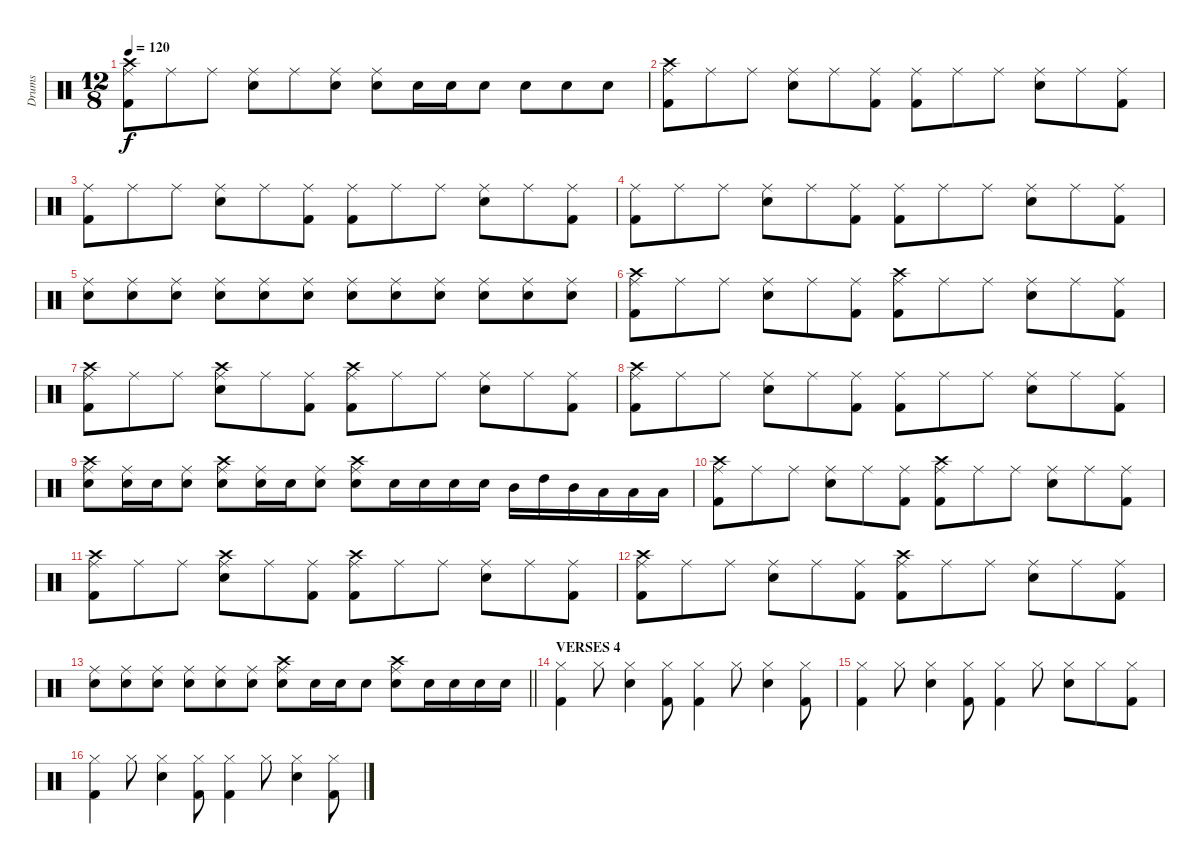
\track ("Drums" "Drums") {instrument percussion}
\staff {score}
\articulation defaults
\ts (12 8)
\tempo 120
\clef neutral
\ks c
("Crash high (hit)" "Ride (middle)" "Kick (hit) 2").8{dy f} "Ride (middle)".8 "Ride (middle)".8 ("Ride (middle)" "Electric Snare (hit)").8 "Ride (middle)".8 ("Ride (middle)" "Electric Snare (hit)").8 ("Ride (middle)" "Electric Snare (hit)").8 "Electric Snare (hit)".16 "Electric Snare (hit)".16 "Electric Snare (hit)".8 "Electric Snare (hit)".8 "Electric Snare (hit)".8 "Electric Snare (hit)".8 |
("Crash high (hit)" "Ride (middle)" "Kick (hit) 2").8 "Ride (middle)".8 "Ride (middle)".8 ("Ride (middle)" "Electric Snare (hit)").8 "Ride (middle)".8 ("Ride (middle)" "Kick (hit) 2").8 ("Ride (middle)" "Kick (hit) 2").8 "Ride (middle)".8 "Ride (middle)".8 ("Ride (middle)" "Electric Snare (hit)").8 "Ride (middle)".8 ("Ride (middle)" "Kick (hit) 2").8 |
("Ride (middle)" "Kick (hit) 2").8 "Ride (middle)".8 "Ride (middle)".8 ("Ride (middle)" "Electric Snare (hit)").8 "Ride (middle)".8 ("Ride (middle)" "Kick (hit) 2").8 ("Ride (middle)" "Kick (hit) 2").8 "Ride (middle)".8 "Ride (middle)".8 ("Ride (middle)" "Electric Snare (hit)").8 "Ride (middle)".8 ("Ride (middle)" "Kick (hit) 2").8 |
("Ride (middle)" "Kick (hit) 2").8 "Ride (middle)".8 "Ride (middle)".8 ("Ride (middle)" "Electric Snare (hit)").8 "Ride (middle)".8 ("Ride (middle)" "Kick (hit) 2").8 ("Ride (middle)" "Kick (hit) 2").8 "Ride (middle)".8 "Ride (middle)".8 ("Ride (middle)" "Electric Snare (hit)").8 "Ride (middle)".8 ("Ride (middle)" "Kick (hit) 2").8 |
("Ride (middle)" "Electric Snare (hit)").8 ("Ride (middle)" "Electric Snare (hit)").8 ("Ride (middle)" "Electric Snare (hit)").8 ("Ride (middle)" "Electric Snare (hit)").8 ("Ride (middle)" "Electric Snare (hit)").8 ("Ride (middle)" "Electric Snare (hit)").8 ("Ride (middle)" "Electric Snare (hit)").8 ("Ride (middle)" "Electric Snare (hit)").8 ("Ride (middle)" "Electric Snare (hit)").8 ("Ride (middle)" "Electric Snare (hit)").8 ("Ride (middle)" "Electric Snare (hit)").8 ("Ride (middle)" "Electric Snare (hit)").8 |
("Crash high (hit)" "Ride (middle)" "Kick (hit) 2").8 "Ride (middle)".8 "Ride (middle)".8 ("Ride (middle)" "Electric Snare (hit)").8 "Ride (middle)".8 ("Ride (middle)" "Kick (hit) 2").8 ("Crash high (hit)" "Ride (middle)" "Kick (hit) 2").8 "Ride (middle)".8 "Ride (middle)".8 ("Ride (middle)" "Electric Snare (hit)").8 "Ride (middle)".8 ("Ride (middle)" "Kick (hit) 2").8 |
("Crash high (hit)" "Ride (middle)" "Kick (hit) 2").8 "Ride (middle)".8 "Ride (middle)".8 ("Crash high (hit)" "Ride (middle)" "Electric Snare (hit)").8 "Ride (middle)".8 ("Ride (middle)" "Kick (hit) 2").8 ("Crash high (hit)" "Ride (middle)" "Kick (hit) 2").8 "Ride (middle)".8 "Ride (middle)".8 ("Ride (middle)" "Electric Snare (hit)").8 "Ride (middle)".8 ("Ride (middle)" "Kick (hit) 2").8 |
("Crash high (hit)" "Ride (middle)" "Kick (hit) 2").8 "Ride (middle)".8 "Ride (middle)".8 ("Ride (middle)" "Electric Snare (hit)").8 "Ride (middle)".8 ("Ride (middle)" "Kick (hit) 2").8 ("Ride (middle)" "Kick (hit) 2").8 "Ride (middle)".8 "Ride (middle)".8 ("Ride (middle)" "Electric Snare (hit)").8 "Ride (middle)".8 ("Ride (middle)" "Kick (hit) 2").8 |
("Crash high (hit)" "Ride (middle)" "Electric Snare (hit)").8 ("Ride (middle)" "Electric Snare (hit)").16 "Electric Snare (hit)".16 ("Ride (middle)" "Electric Snare (hit)").8 ("Crash high (hit)" "Ride (middle)" "Electric Snare (hit)").8 ("Ride (middle)" "Electric Snare (hit)").16 "Electric Snare (hit)".16 ("Ride (middle)" "Electric Snare (hit)").8 ("Crash high (hit)" "Ride (middle)" "Electric Snare (hit)").8 "Electric Snare (hit)".16 "Electric Snare (hit)".16 "Electric Snare (hit)".16 "Electric Snare (hit)".16 "Mid Tom (hit)".16 "High Tom (hit)".16 "Mid Tom (hit)".16 "Low Tom (hit)".16 "Low Tom (hit)".16 "Low Tom (hit)".16 |
("Crash high (hit)" "Ride (middle)" "Kick (hit) 2").8 "Ride (middle)".8 "Ride (middle)".8 ("Ride (middle)" "Electric Snare (hit)").8 "Ride (middle)".8 ("Ride (middle)" "Kick (hit) 2").8 ("Crash high (hit)" "Ride (middle)" "Kick (hit) 2").8 "Ride (middle)".8 "Ride (middle)".8 ("Ride (middle)" "Electric Snare (hit)").8 "Ride (middle)".8 ("Ride (middle)" "Kick (hit) 2").8 |
("Crash high (hit)" "Ride (middle)" "Kick (hit) 2").8 "Ride (middle)".8 "Ride (middle)".8 ("Crash high (hit)" "Ride (middle)" "Electric Snare (hit)").8 "Ride (middle)".8 ("Ride (middle)" "Kick (hit) 2").8 ("Crash high (hit)" "Ride (middle)" "Kick (hit) 2").8 "Ride (middle)".8 "Ride (middle)".8 ("Ride (middle)" "Electric Snare (hit)").8 "Ride (middle)".8 ("Ride (middle)" "Kick (hit) 2").8 |
("Crash high (hit)" "Ride (middle)" "Kick (hit) 2").8 "Ride (middle)".8 "Ride (middle)".8 ("Ride (middle)" "Electric Snare (hit)").8 "Ride (middle)".8 ("Ride (middle)" "Kick (hit) 2").8 ("Crash high (hit)" "Ride (middle)" "Kick (hit) 2").8 "Ride (middle)".8 "Ride (middle)".8 ("Ride (middle)" "Electric Snare (hit)").8 "Ride (middle)".8 ("Ride (middle)" "Kick (hit) 2").8 |
\barLineRight lightlight
("Ride (middle)" "Electric Snare (hit)").8 ("Ride (middle)" "Electric Snare (hit)").8 ("Ride (middle)" "Electric Snare (hit)").8 ("Ride (middle)" "Electric Snare (hit)").8 ("Ride (middle)" "Electric Snare (hit)").8 ("Ride (middle)" "Electric Snare (hit)").8 ("Crash high (hit)" "Ride (middle)" "Electric Snare (hit)").8 "Electric Snare (hit)".16 "Electric Snare (hit)".16 "Electric Snare (hit)".8 ("Crash high (hit)" "Ride (middle)" "Electric Snare (hit)").8 "Electric Snare (hit)".16 "Electric Snare (hit)".16 "Electric Snare (hit)".16 "Electric Snare (hit)".16 |
\section ("" "VERSES 4")
("Hi-Hat (closed)" "Kick (hit) 2").4 "Hi-Hat (closed)".8 ("Hi-Hat (closed)" "Electric Snare (hit)").4 ("Hi-Hat (closed)" "Kick (hit) 2").8 ("Hi-Hat (closed)" "Kick (hit) 2").4 "Hi-Hat (closed)".8 ("Hi-Hat (closed)" "Electric Snare (hit)").4 ("Hi-Hat (closed)" "Kick (hit) 2").8 |
("Hi-Hat (closed)" "Kick (hit) 2").4 "Hi-Hat (closed)".8 ("Hi-Hat (closed)" "Electric Snare (hit)").4 ("Hi-Hat (closed)" "Kick (hit) 2").8 ("Hi-Hat (closed)" "Kick (hit) 2").4 "Hi-Hat (closed)".8 ("Hi-Hat (closed)" "Electric Snare (hit)").8 "Hi-Hat (closed)".8 ("Hi-Hat (closed)" "Kick (hit) 2").8 |
("Hi-Hat (closed)" "Kick (hit) 2").4 "Hi-Hat (closed)".8 ("Hi-Hat (closed)" "Electric Snare (hit)").4 ("Hi-Hat (closed)" "Kick (hit) 2").8 ("Hi-Hat (closed)" "Kick (hit) 2").4 "Hi-Hat (closed)".8 ("Hi-Hat (closed)" "Electric Snare (hit)").4 ("Hi-Hat (closed)" "Kick (hit) 2").8
